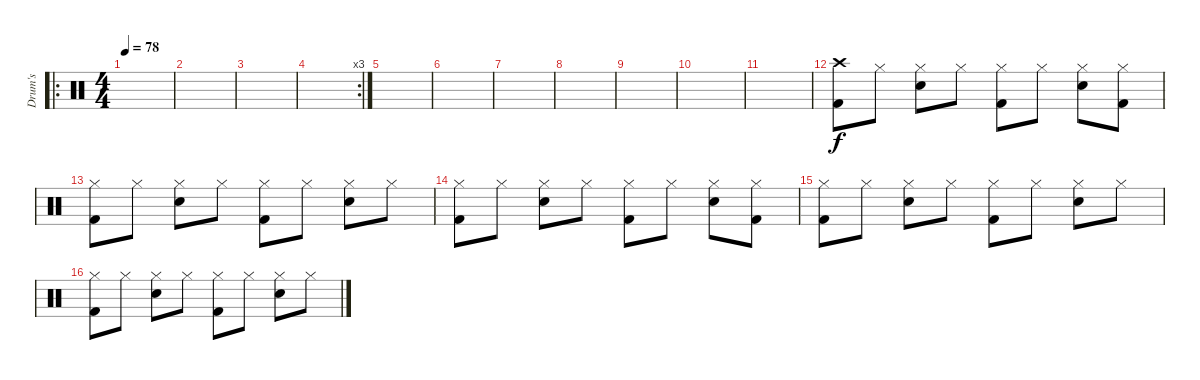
\track ("Drum's " "Drum's ") {instrument percussion}
\staff {score}
\articulation defaults
\ro
\ts (4 4)
\tempo 78
\clef neutral
\ks c
|
|
|
\rc 3
|
|
|
|
|
|
|
|
("Crash high (hit)" "Kick (hit) 2").8 "Hi-Hat (closed)".8 ("Hi-Hat (closed)" "Snare (hit) 2").8 "Hi-Hat (closed)".8 ("Hi-Hat (closed)" "Kick (hit) 2").8 "Hi-Hat (closed)".8 ("Hi-Hat (closed)" "Snare (hit) 2").8 ("Hi-Hat (closed)" "Kick (hit) 2").8 |
("Hi-Hat (closed)" "Kick (hit) 2").8 "Hi-Hat (closed)".8 ("Hi-Hat (closed)" "Snare (hit) 2").8 "Hi-Hat (closed)".8 ("Hi-Hat (closed)" "Kick (hit) 2").8 "Hi-Hat (closed)".8 ("Hi-Hat (closed)" "Snare (hit) 2").8 "Hi-Hat (closed)".8 |
("Hi-Hat (closed)" "Kick (hit) 2").8 "Hi-Hat (closed)".8 ("Hi-Hat (closed)" "Snare (hit) 2").8 "Hi-Hat (closed)".8 ("Hi-Hat (closed)" "Kick (hit) 2").8 "Hi-Hat (closed)".8 ("Hi-Hat (closed)" "Snare (hit) 2").8 ("Hi-Hat (closed)" "Kick (hit) 2").8 |
("Hi-Hat (closed)" "Kick (hit) 2").8 "Hi-Hat (closed)".8 ("Hi-Hat (closed)" "Snare (hit) 2").8 "Hi-Hat (closed)".8 ("Hi-Hat (closed)" "Kick (hit) 2").8 "Hi-Hat (closed)".8 ("Hi-Hat (closed)" "Snare (hit) 2").8 "Hi-Hat (closed)".8 |
("Hi-Hat (closed)" "Kick (hit) 2").8 "Hi-Hat (closed)".8 ("Hi-Hat (closed)" "Snare (hit) 2").8 "Hi-Hat (closed)".8 ("Hi-Hat (closed)" "Kick (hit) 2").8 "Hi-Hat (closed)".8 ("Hi-Hat (closed)" "Snare (hit) 2").8 "Hi-Hat (closed)".8
